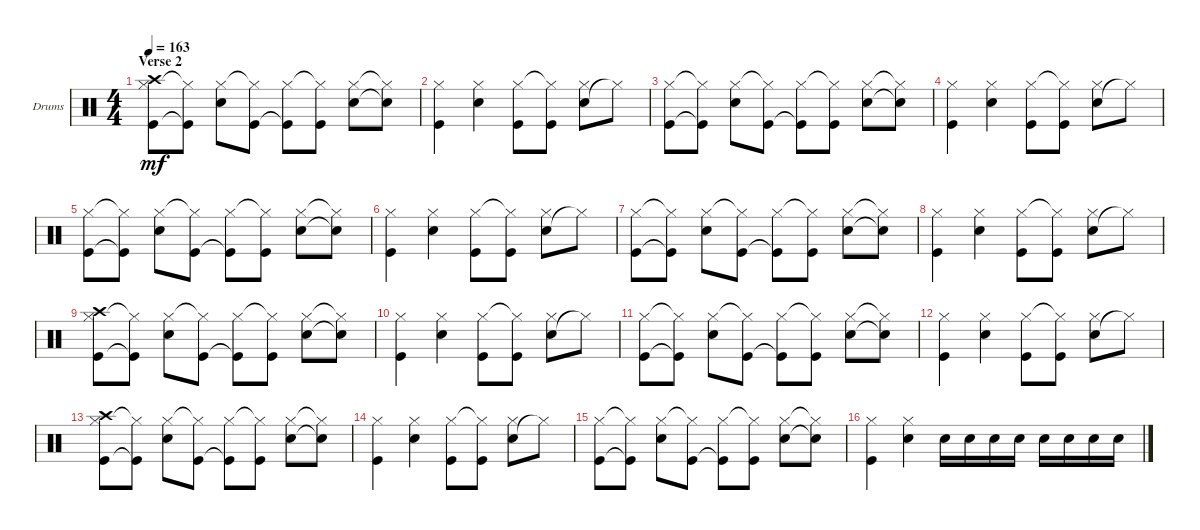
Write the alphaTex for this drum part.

\bracketExtendMode groupsimilarinstruments
\firstSystemTrackNameOrientation horizontal
\otherSystemsTrackNameOrientation horizontal
\track ("Drums" "Drums") {instrument percussion}
\staff {score}
\articulation defaults
\ts (4 4)
\section ("" "Verse 2")
\tempo 163
\clef neutral
\scale
0.333333
\ks c
("Kick (hit)" "Hi-Hat (closed)" "Crash high (hit)").8{dy mf} ("Kick (hit)"{t} "Hi-Hat (closed)"{t}).8 ("Hi-Hat (closed)" "Snare (hit) 2").8 ("Hi-Hat (closed)"{t} "Kick (hit)").8 ("Hi-Hat (closed)" "Kick (hit)"{t}).8 ("Hi-Hat (closed)"{t} "Kick (hit)").8 ("Hi-Hat (closed)" "Snare (hit) 2").8 ("Hi-Hat (closed)"{t} "Snare (hit) 2"{t}).8 |
\scale
0.333333 ("Kick (hit)" "Hi-Hat (closed)").4 ("Snare (hit) 2" "Hi-Hat (closed)").4 ("Kick (hit)" "Hi-Hat (closed)").8 ("Kick (hit)" "Hi-Hat (closed)"{t}).8 ("Snare (hit) 2" "Hi-Hat (closed)").8 "Hi-Hat (closed)"{t}.8 |
\scale
0.333333 ("Kick (hit)" "Hi-Hat (closed)").8 ("Kick (hit)"{t} "Hi-Hat (closed)"{t}).8 ("Hi-Hat (closed)" "Snare (hit) 2").8 ("Hi-Hat (closed)"{t} "Kick (hit)").8 ("Hi-Hat (closed)" "Kick (hit)"{t}).8 ("Hi-Hat (closed)"{t} "Kick (hit)").8 ("Hi-Hat (closed)" "Snare (hit) 2").8 ("Hi-Hat (closed)"{t} "Snare (hit) 2"{t}).8 |
\scale
0.333333 ("Kick (hit)" "Hi-Hat (closed)").4 ("Snare (hit) 2" "Hi-Hat (closed)").4 ("Kick (hit)" "Hi-Hat (closed)").8 ("Kick (hit)" "Hi-Hat (closed)"{t}).8 ("Snare (hit) 2" "Hi-Hat (closed)").8 "Hi-Hat (closed)"{t}.8 |
\scale
0.333333 ("Kick (hit)" "Hi-Hat (closed)").8 ("Kick (hit)"{t} "Hi-Hat (closed)"{t}).8 ("Hi-Hat (closed)" "Snare (hit) 2").8 ("Hi-Hat (closed)"{t} "Kick (hit)").8 ("Hi-Hat (closed)" "Kick (hit)"{t}).8 ("Hi-Hat (closed)"{t} "Kick (hit)").8 ("Hi-Hat (closed)" "Snare (hit) 2").8 ("Hi-Hat (closed)"{t} "Snare (hit) 2"{t}).8 |
\scale
0.333333 ("Kick (hit)" "Hi-Hat (closed)").4 ("Snare (hit) 2" "Hi-Hat (closed)").4 ("Kick (hit)" "Hi-Hat (closed)").8 ("Kick (hit)" "Hi-Hat (closed)"{t}).8 ("Snare (hit) 2" "Hi-Hat (closed)").8 "Hi-Hat (closed)"{t}.8 |
\scale
0.333333 ("Kick (hit)" "Hi-Hat (closed)").8 ("Kick (hit)"{t} "Hi-Hat (closed)"{t}).8 ("Hi-Hat (closed)" "Snare (hit) 2").8 ("Hi-Hat (closed)"{t} "Kick (hit)").8 ("Hi-Hat (closed)" "Kick (hit)"{t}).8 ("Hi-Hat (closed)"{t} "Kick (hit)").8 ("Hi-Hat (closed)" "Snare (hit) 2").8 ("Hi-Hat (closed)"{t} "Snare (hit) 2"{t}).8 |
\scale
0.333333 ("Kick (hit)" "Hi-Hat (closed)").4 ("Snare (hit) 2" "Hi-Hat (closed)").4 ("Kick (hit)" "Hi-Hat (closed)").8 ("Kick (hit)" "Hi-Hat (closed)"{t}).8 ("Snare (hit) 2" "Hi-Hat (closed)").8 "Hi-Hat (closed)"{t}.8 |
\scale
0.333333 ("Kick (hit)" "Hi-Hat (closed)" "Crash high (hit)").8 ("Kick (hit)"{t} "Hi-Hat (closed)"{t}).8 ("Hi-Hat (closed)" "Snare (hit) 2").8 ("Hi-Hat (closed)"{t} "Kick (hit)").8 ("Hi-Hat (closed)" "Kick (hit)"{t}).8 ("Hi-Hat (closed)"{t} "Kick (hit)").8 ("Hi-Hat (closed)" "Snare (hit) 2").8 ("Hi-Hat (closed)"{t} "Snare (hit) 2"{t}).8 |
\scale
0.333333 ("Kick (hit)" "Hi-Hat (closed)").4 ("Snare (hit) 2" "Hi-Hat (closed)").4 ("Kick (hit)" "Hi-Hat (closed)").8 ("Kick (hit)" "Hi-Hat (closed)"{t}).8 ("Snare (hit) 2" "Hi-Hat (closed)").8 "Hi-Hat (closed)"{t}.8 |
\scale
0.333333 ("Kick (hit)" "Hi-Hat (closed)").8 ("Kick (hit)"{t} "Hi-Hat (closed)"{t}).8 ("Hi-Hat (closed)" "Snare (hit) 2").8 ("Hi-Hat (closed)"{t} "Kick (hit)").8 ("Hi-Hat (closed)" "Kick (hit)"{t}).8 ("Hi-Hat (closed)"{t} "Kick (hit)").8 ("Hi-Hat (closed)" "Snare (hit) 2").8 ("Hi-Hat (closed)"{t} "Snare (hit) 2"{t}).8 |
\scale
0.333333 ("Kick (hit)" "Hi-Hat (closed)").4 ("Snare (hit) 2" "Hi-Hat (closed)").4 ("Kick (hit)" "Hi-Hat (closed)").8 ("Kick (hit)" "Hi-Hat (closed)"{t}).8 ("Snare (hit) 2" "Hi-Hat (closed)").8 "Hi-Hat (closed)"{t}.8 |
\scale
0.333333 ("Kick (hit)" "Hi-Hat (closed)" "Crash high (hit)").8 ("Kick (hit)"{t} "Hi-Hat (closed)"{t}).8 ("Hi-Hat (closed)" "Snare (hit) 2").8 ("Hi-Hat (closed)"{t} "Kick (hit)").8 ("Hi-Hat (closed)" "Kick (hit)"{t}).8 ("Hi-Hat (closed)"{t} "Kick (hit)").8 ("Hi-Hat (closed)" "Snare (hit) 2").8 ("Hi-Hat (closed)"{t} "Snare (hit) 2"{t}).8 |
\scale
0.333333 ("Kick (hit)" "Hi-Hat (closed)").4 ("Snare (hit) 2" "Hi-Hat (closed)").4 ("Kick (hit)" "Hi-Hat (closed)").8 ("Kick (hit)" "Hi-Hat (closed)"{t}).8 ("Snare (hit) 2" "Hi-Hat (closed)").8 "Hi-Hat (closed)"{t}.8 |
\scale
0.333333 ("Kick (hit)" "Hi-Hat (closed)").8 ("Kick (hit)"{t} "Hi-Hat (closed)"{t}).8 ("Hi-Hat (closed)" "Snare (hit) 2").8 ("Hi-Hat (closed)"{t} "Kick (hit)").8 ("Hi-Hat (closed)" "Kick (hit)"{t}).8 ("Hi-Hat (closed)"{t} "Kick (hit)").8 ("Hi-Hat (closed)" "Snare (hit) 2").8 ("Hi-Hat (closed)"{t} "Snare (hit) 2"{t}).8 |
\scale
0.333333 ("Kick (hit)" "Hi-Hat (closed)").4 ("Snare (hit) 2" "Hi-Hat (closed)").4 "Snare (hit) 2".16 "Snare (hit) 2".16 "Snare (hit) 2".16 "Snare (hit) 2".16 "Snare (hit) 2".16 "Snare (hit) 2".16 "Snare (hit) 2".16 "Snare (hit) 2".16
